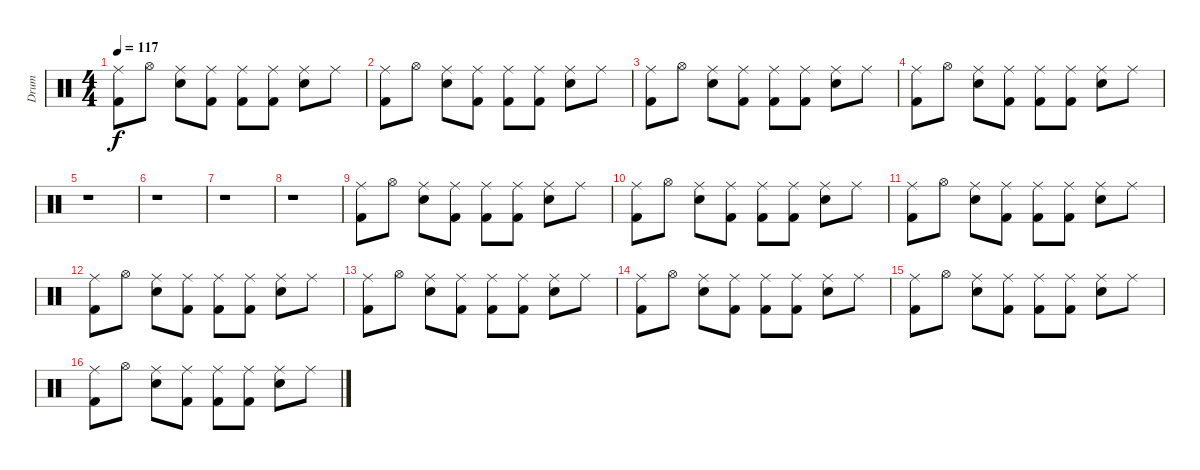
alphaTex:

\track ("Drum" "Drum") {instrument percussion}
\staff {score}
\articulation defaults
\ts (4 4)
\tempo 117
\clef neutral
\ks c
("Ride (middle)" "Kick (hit) 2").8{dy f} "Hi-Hat (open)".8 ("Ride (middle)" "Snare (hit) 2").8 ("Ride (middle)" "Kick (hit) 2").8 ("Ride (middle)" "Kick (hit) 2").8 ("Ride (middle)" "Kick (hit) 2").8 ("Ride (middle)" "Snare (hit) 2").8 "Ride (middle)".8 |
("Ride (middle)" "Kick (hit) 2").8 "Hi-Hat (open)".8 ("Ride (middle)" "Snare (hit) 2").8 ("Ride (middle)" "Kick (hit) 2").8 ("Ride (middle)" "Kick (hit) 2").8 ("Ride (middle)" "Kick (hit) 2").8 ("Ride (middle)" "Snare (hit) 2").8 "Ride (middle)".8 |
("Ride (middle)" "Kick (hit) 2").8 "Hi-Hat (open)".8 ("Ride (middle)" "Snare (hit) 2").8 ("Ride (middle)" "Kick (hit) 2").8 ("Ride (middle)" "Kick (hit) 2").8 ("Ride (middle)" "Kick (hit) 2").8 ("Ride (middle)" "Snare (hit) 2").8 "Ride (middle)".8 |
("Ride (middle)" "Kick (hit) 2").8 "Hi-Hat (open)".8 ("Ride (middle)" "Snare (hit) 2").8 ("Ride (middle)" "Kick (hit) 2").8 ("Ride (middle)" "Kick (hit) 2").8 ("Ride (middle)" "Kick (hit) 2").8 ("Ride (middle)" "Snare (hit) 2").8 "Ride (middle)".8 |
r.1 |
r.1 |
r.1 |
r.1 |
("Ride (middle)" "Kick (hit) 2").8 "Hi-Hat (open)".8 ("Ride (middle)" "Snare (hit) 2").8 ("Ride (middle)" "Kick (hit) 2").8 ("Ride (middle)" "Kick (hit) 2").8 ("Ride (middle)" "Kick (hit) 2").8 ("Ride (middle)" "Snare (hit) 2").8 "Ride (middle)".8 |
("Ride (middle)" "Kick (hit) 2").8 "Hi-Hat (open)".8 ("Ride (middle)" "Snare (hit) 2").8 ("Ride (middle)" "Kick (hit) 2").8 ("Ride (middle)" "Kick (hit) 2").8 ("Ride (middle)" "Kick (hit) 2").8 ("Ride (middle)" "Snare (hit) 2").8 "Ride (middle)".8 |
("Ride (middle)" "Kick (hit) 2").8 "Hi-Hat (open)".8 ("Ride (middle)" "Snare (hit) 2").8 ("Ride (middle)" "Kick (hit) 2").8 ("Ride (middle)" "Kick (hit) 2").8 ("Ride (middle)" "Kick (hit) 2").8 ("Ride (middle)" "Snare (hit) 2").8 "Ride (middle)".8 |
("Ride (middle)" "Kick (hit) 2").8 "Hi-Hat (open)".8 ("Ride (middle)" "Snare (hit) 2").8 ("Ride (middle)" "Kick (hit) 2").8 ("Ride (middle)" "Kick (hit) 2").8 ("Ride (middle)" "Kick (hit) 2").8 ("Ride (middle)" "Snare (hit) 2").8 "Ride (middle)".8 |
("Ride (middle)" "Kick (hit) 2").8 "Hi-Hat (open)".8 ("Ride (middle)" "Snare (hit) 2").8 ("Ride (middle)" "Kick (hit) 2").8 ("Ride (middle)" "Kick (hit) 2").8 ("Ride (middle)" "Kick (hit) 2").8 ("Ride (middle)" "Snare (hit) 2").8 "Ride (middle)".8 |
("Ride (middle)" "Kick (hit) 2").8 "Hi-Hat (open)".8 ("Ride (middle)" "Snare (hit) 2").8 ("Ride (middle)" "Kick (hit) 2").8 ("Ride (middle)" "Kick (hit) 2").8 ("Ride (middle)" "Kick (hit) 2").8 ("Ride (middle)" "Snare (hit) 2").8 "Ride (middle)".8 |
("Ride (middle)" "Kick (hit) 2").8 "Hi-Hat (open)".8 ("Ride (middle)" "Snare (hit) 2").8 ("Ride (middle)" "Kick (hit) 2").8 ("Ride (middle)" "Kick (hit) 2").8 ("Ride (middle)" "Kick (hit) 2").8 ("Ride (middle)" "Snare (hit) 2").8 "Ride (middle)".8 |
("Ride (middle)" "Kick (hit) 2").8 "Hi-Hat (open)".8 ("Ride (middle)" "Snare (hit) 2").8 ("Ride (middle)" "Kick (hit) 2").8 ("Ride (middle)" "Kick (hit) 2").8 ("Ride (middle)" "Kick (hit) 2").8 ("Ride (middle)" "Snare (hit) 2").8 "Ride (middle)".8
